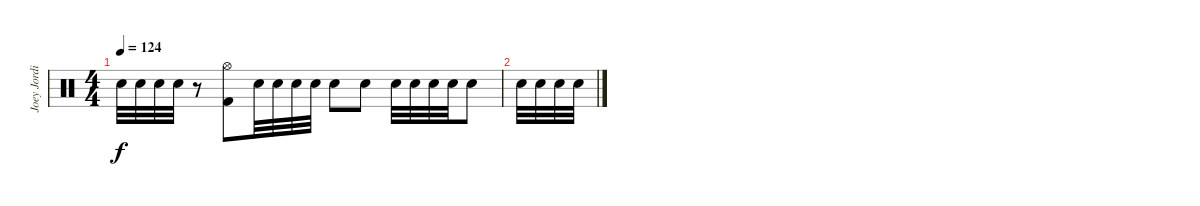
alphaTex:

\track ("Joey Jordison" "Joey Jordi") {instrument percussion}
\staff
\articulation defaults
\ts (4 4)
\tempo 124
\clef neutral
\ks c "Electric Snare (hit)".32{dy f} "Electric Snare (hit)".32 "Electric Snare (hit)".32 "Electric Snare (hit)".32
r.8 ("Hi-Hat (open)" "Kick (hit) 2").8 "Electric Snare (hit)".32 "Electric Snare (hit)".32 "Electric Snare (hit)".32 "Electric Snare (hit)".32 "Electric Snare (hit)".8 "Electric Snare (hit)".8 "Electric Snare (hit)".32 "Electric Snare (hit)".32 "Electric Snare (hit)".32 "Electric Snare (hit)".32 "Electric Snare (hit)".8 |
"Electric Snare (hit)".32 "Electric Snare (hit)".32 "Electric Snare (hit)".32 "Electric Snare (hit)".32
